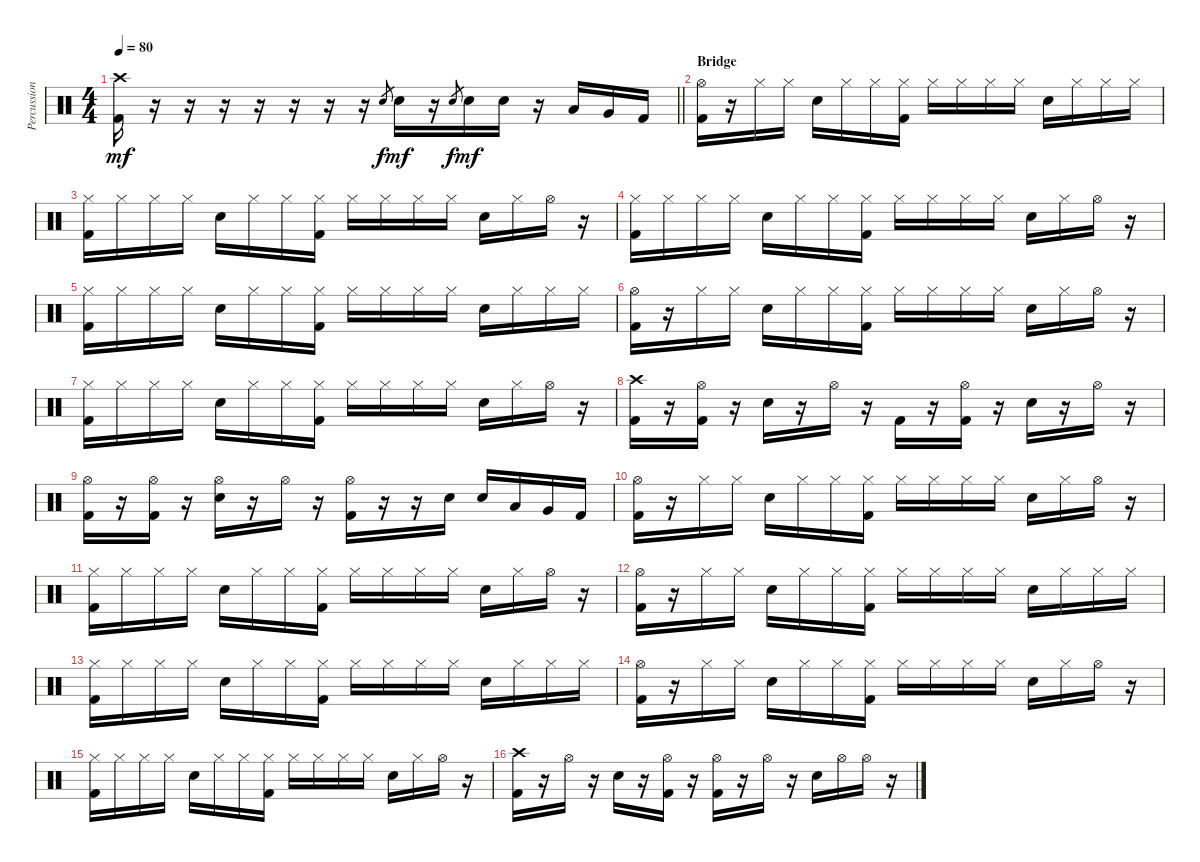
\track ("Percussion" "Percussion") {instrument percussion}
\staff {score}
\articulation defaults
\ts (4 4)
\tempo 80
\clef neutral
\barLineRight lightlight
\ks c
("Crash high (hit)" "Kick (hit) 2").16{dy mf} r.16 r.16 r.16 r.16 r.16 r.16 r.16 "Snare (hit) 2".8{gr dy f} "Snare (hit) 2".16{dy mf} r.16 "Snare (hit) 2".8{gr dy f} "Snare (hit) 2".16{dy mf} "Snare (hit) 2".16 r.16 "Low Tom (hit)".16 "Very Low Tom (hit)".16 "Kick (hit) 2".16 |
\section ("" "Bridge")
("Hi-Hat (open)" "Kick (hit) 2").16 r.16 "Hi-Hat (closed)".16 "Hi-Hat (closed)".16 "Snare (hit) 2".16 "Hi-Hat (closed)".16 "Hi-Hat (closed)".16 ("Hi-Hat (closed)" "Kick (hit) 2").16 "Hi-Hat (closed)".16 "Hi-Hat (closed)".16 "Hi-Hat (closed)".16 "Hi-Hat (closed)".16 "Snare (hit) 2".16 "Hi-Hat (closed)".16 "Hi-Hat (closed)".16 "Hi-Hat (closed)".16 |
("Hi-Hat (closed)" "Kick (hit) 2").16 "Hi-Hat (closed)".16 "Hi-Hat (closed)".16 "Hi-Hat (closed)".16 "Snare (hit) 2".16 "Hi-Hat (closed)".16 "Hi-Hat (closed)".16 ("Hi-Hat (closed)" "Kick (hit) 2").16 "Hi-Hat (closed)".16 "Hi-Hat (closed)".16 "Hi-Hat (closed)".16 "Hi-Hat (closed)".16 "Snare (hit) 2".16 "Hi-Hat (closed)".16 "Hi-Hat (open)".16 r.16 |
("Hi-Hat (closed)" "Kick (hit) 2").16 "Hi-Hat (closed)".16 "Hi-Hat (closed)".16 "Hi-Hat (closed)".16 "Snare (hit) 2".16 "Hi-Hat (closed)".16 "Hi-Hat (closed)".16 ("Hi-Hat (closed)" "Kick (hit) 2").16 "Hi-Hat (closed)".16 "Hi-Hat (closed)".16 "Hi-Hat (closed)".16 "Hi-Hat (closed)".16 "Snare (hit) 2".16 "Hi-Hat (closed)".16 "Hi-Hat (open)".16 r.16 |
("Hi-Hat (closed)" "Kick (hit) 2").16 "Hi-Hat (closed)".16 "Hi-Hat (closed)".16 "Hi-Hat (closed)".16 "Snare (hit) 2".16 "Hi-Hat (closed)".16 "Hi-Hat (closed)".16 ("Hi-Hat (closed)" "Kick (hit) 2").16 "Hi-Hat (closed)".16 "Hi-Hat (closed)".16 "Hi-Hat (closed)".16 "Hi-Hat (closed)".16 "Snare (hit) 2".16 "Hi-Hat (closed)".16 "Hi-Hat (closed)".16 "Hi-Hat (closed)".16 |
("Hi-Hat (open)" "Kick (hit) 2").16 r.16 "Hi-Hat (closed)".16 "Hi-Hat (closed)".16 "Snare (hit) 2".16 "Hi-Hat (closed)".16 "Hi-Hat (closed)".16 ("Hi-Hat (closed)" "Kick (hit) 2").16 "Hi-Hat (closed)".16 "Hi-Hat (closed)".16 "Hi-Hat (closed)".16 "Hi-Hat (closed)".16 "Snare (hit) 2".16 "Hi-Hat (closed)".16 "Hi-Hat (open)".16 r.16 |
("Hi-Hat (closed)" "Kick (hit) 2").16 "Hi-Hat (closed)".16 "Hi-Hat (closed)".16 "Hi-Hat (closed)".16 "Snare (hit) 2".16 "Hi-Hat (closed)".16 "Hi-Hat (closed)".16 ("Hi-Hat (closed)" "Kick (hit) 2").16 "Hi-Hat (closed)".16 "Hi-Hat (closed)".16 "Hi-Hat (closed)".16 "Hi-Hat (closed)".16 "Snare (hit) 2".16 "Hi-Hat (closed)".16 "Hi-Hat (open)".16 r.16 |
("Crash high (hit)" "Kick (hit) 2").16 r.16 ("Hi-Hat (open)" "Kick (hit) 2").16 r.16 "Snare (hit) 2".16 r.16 "Hi-Hat (open)".16 r.16 "Kick (hit) 2".16 r.16 ("Hi-Hat (open)" "Kick (hit) 2").16 r.16 "Snare (hit) 2".16 r.16 "Hi-Hat (open)".16 r.16 |
("Hi-Hat (open)" "Kick (hit) 2").16 r.16 ("Hi-Hat (open)" "Kick (hit) 2").16 r.16 ("Hi-Hat (open)" "Snare (hit) 2").16 r.16 "Hi-Hat (open)".16 r.16 ("Hi-Hat (open)" "Kick (hit) 2").16 r.16 r.16 "Electric Snare (hit)".16 "Electric Snare (hit)".16 "Low Tom (hit)".16 "Very Low Tom (hit)".16 "Kick (hit) 2".16 |
("Hi-Hat (open)" "Kick (hit) 2").16 r.16 "Hi-Hat (closed)".16 "Hi-Hat (closed)".16 "Snare (hit) 2".16 "Hi-Hat (closed)".16 "Hi-Hat (closed)".16 ("Hi-Hat (closed)" "Kick (hit) 2").16 "Hi-Hat (closed)".16 "Hi-Hat (closed)".16 "Hi-Hat (closed)".16 "Hi-Hat (closed)".16 "Snare (hit) 2".16 "Hi-Hat (closed)".16 "Hi-Hat (open)".16 r.16 |
("Hi-Hat (closed)" "Kick (hit) 2").16 "Hi-Hat (closed)".16 "Hi-Hat (closed)".16 "Hi-Hat (closed)".16 "Snare (hit) 2".16 "Hi-Hat (closed)".16 "Hi-Hat (closed)".16 ("Hi-Hat (closed)" "Kick (hit) 2").16 "Hi-Hat (closed)".16 "Hi-Hat (closed)".16 "Hi-Hat (closed)".16 "Hi-Hat (closed)".16 "Snare (hit) 2".16 "Hi-Hat (closed)".16 "Hi-Hat (open)".16 r.16 |
("Hi-Hat (open)" "Kick (hit) 2").16 r.16 "Hi-Hat (closed)".16 "Hi-Hat (closed)".16 "Snare (hit) 2".16 "Hi-Hat (closed)".16 "Hi-Hat (closed)".16 ("Hi-Hat (closed)" "Kick (hit) 2").16 "Hi-Hat (closed)".16 "Hi-Hat (closed)".16 "Hi-Hat (closed)".16 "Hi-Hat (closed)".16 "Snare (hit) 2".16 "Hi-Hat (closed)".16 "Hi-Hat (closed)".16 "Hi-Hat (closed)".16 |
("Hi-Hat (closed)" "Kick (hit) 2").16 "Hi-Hat (closed)".16 "Hi-Hat (closed)".16 "Hi-Hat (closed)".16 "Snare (hit) 2".16 "Hi-Hat (closed)".16 "Hi-Hat (closed)".16 ("Hi-Hat (closed)" "Kick (hit) 2").16 "Hi-Hat (closed)".16 "Hi-Hat (closed)".16 "Hi-Hat (closed)".16 "Hi-Hat (closed)".16 "Snare (hit) 2".16 "Hi-Hat (closed)".16 "Hi-Hat (closed)".16 "Hi-Hat (closed)".16 |
("Hi-Hat (open)" "Kick (hit) 2").16 r.16 "Hi-Hat (closed)".16 "Hi-Hat (closed)".16 "Snare (hit) 2".16 "Hi-Hat (closed)".16 "Hi-Hat (closed)".16 ("Hi-Hat (closed)" "Kick (hit) 2").16 "Hi-Hat (closed)".16 "Hi-Hat (closed)".16 "Hi-Hat (closed)".16 "Hi-Hat (closed)".16 "Snare (hit) 2".16 "Hi-Hat (closed)".16 "Hi-Hat (open)".16 r.16 |
("Hi-Hat (closed)" "Kick (hit) 2").16 "Hi-Hat (closed)".16 "Hi-Hat (closed)".16 "Hi-Hat (closed)".16 "Snare (hit) 2".16 "Hi-Hat (closed)".16 "Hi-Hat (closed)".16 ("Hi-Hat (closed)" "Kick (hit) 2").16 "Hi-Hat (closed)".16 "Hi-Hat (closed)".16 "Hi-Hat (closed)".16 "Hi-Hat (closed)".16 "Snare (hit) 2".16 "Hi-Hat (closed)".16 "Hi-Hat (open)".16 r.16 |
("Crash high (hit)" "Kick (hit) 2").16 r.16 "Hi-Hat (open)".16 r.16 "Snare (hit) 2".16 r.16 ("Hi-Hat (open)" "Kick (hit) 2").16 r.16 ("Hi-Hat (open)" "Kick (hit) 2").16 r.16 "Hi-Hat (open)".16 r.16 "Snare (hit) 2".16 "Hi-Hat (open)".16 "Hi-Hat (open)".16 r.16
